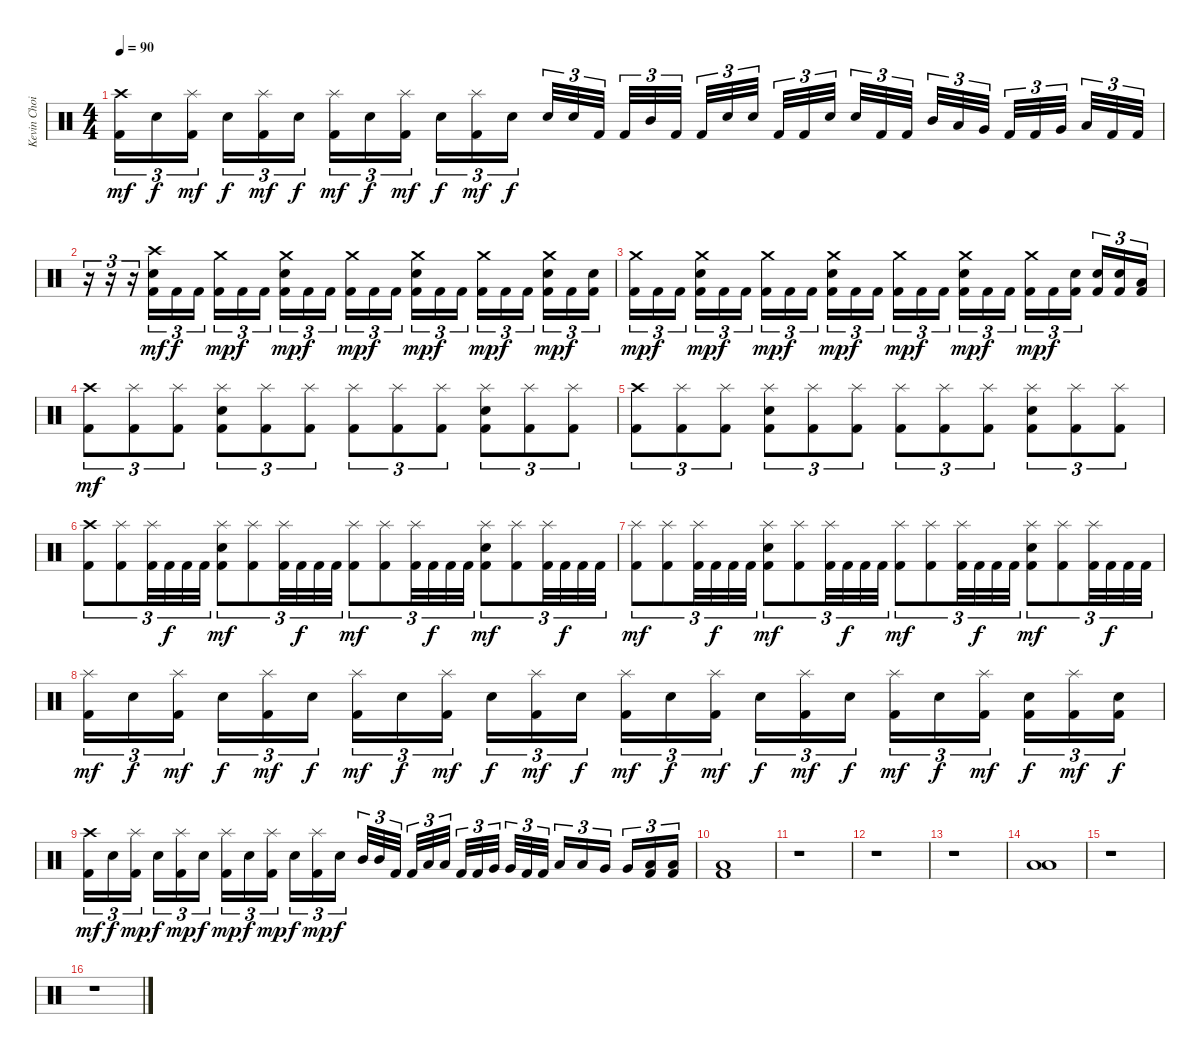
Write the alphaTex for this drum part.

\track ("Kevin Choiral" "Kevin Choi") {instrument percussion}
\staff
\articulation defaults
\ts (4 4)
\tempo 90
\clef neutral
\ks c
("Crash high (hit)" "Kick (hit) 2").16{tu (3 2) dy mf} "Electric Snare (hit)".16{tu (3 2) dy f} ("Splash (hit)" "Kick (hit) 2").16{tu (3 2) dy mf beam splitsecondary} "Electric Snare (hit)".16{tu (3 2) dy f} ("Splash (hit)" "Kick (hit) 2").16{tu (3 2) dy mf} "Electric Snare (hit)".16{tu (3 2) dy f} ("Splash (hit)" "Kick (hit) 2").16{tu (3 2) dy mf} "Electric Snare (hit)".16{tu (3 2) dy f} ("Splash (hit)" "Kick (hit) 2").16{tu (3 2) dy mf beam splitsecondary} "Electric Snare (hit)".16{tu (3 2) dy f} ("Splash (hit)" "Kick (hit) 2").16{tu (3 2) dy mf} "Electric Snare (hit)".16{tu (3 2) dy f} "Electric Snare (hit)".32{tu (3 2)} "Electric Snare (hit)".32{tu (3 2)} "Kick (hit) 2".32{tu (3 2) beam splitsecondary} "Kick (hit) 2".32{tu (3 2)} "Mid Tom (hit)".32{tu (3 2)} "Kick (hit) 2".32{tu (3 2) beam splitsecondary} "Kick (hit) 2".32{tu (3 2)} "Electric Snare (hit)".32{tu (3 2)} "Electric Snare (hit)".32{tu (3 2) beam splitsecondary} "Kick (hit) 2".32{tu (3 2)} "Kick (hit) 2".32{tu (3 2)} "Electric Snare (hit)".32{tu (3 2)} "Electric Snare (hit)".32{tu (3 2)} "Kick (hit) 2".32{tu (3 2)} "Kick (hit) 2".32{tu (3 2) beam splitsecondary} "Mid Tom (hit)".32{tu (3 2)} "Low Tom (hit)".32{tu (3 2)} "Very Low Tom (hit)".32{tu (3 2) beam splitsecondary} "Kick (hit) 2".32{tu (3 2)} "Kick (hit) 2".32{tu (3 2)} "Very Low Tom (hit)".32{tu (3 2) beam splitsecondary} "Low Floor Tom (hit)".32{tu (3 2)} "Kick (hit) 2".32{tu (3 2)} "Kick (hit) 2".32{tu (3 2)} |
r.16{tu (3 2)} r.16{tu (3 2)} r.16{tu (3 2)} ("Crash high (hit)" "Electric Snare (hit)" "Kick (hit) 2").16{tu (3 2) dy mf} "Kick (hit) 2".16{tu (3 2) dy f} "Kick (hit) 2".16{tu (3 2)} ("Crash medium (hit)" "Kick (hit) 2").16{tu (3 2) dy mp} "Kick (hit) 2".16{tu (3 2) dy f} "Kick (hit) 2".16{tu (3 2) beam splitsecondary} ("Crash medium (hit)" "Electric Snare (hit)" "Kick (hit) 2").16{tu (3 2) dy mp} "Kick (hit) 2".16{tu (3 2) dy f} "Kick (hit) 2".16{tu (3 2)} ("Crash medium (hit)" "Kick (hit) 2").16{tu (3 2) dy mp} "Kick (hit) 2".16{tu (3 2) dy f} "Kick (hit) 2".16{tu (3 2) beam splitsecondary} ("Crash medium (hit)" "Electric Snare (hit)" "Kick (hit) 2").16{tu (3 2) dy mp} "Kick (hit) 2".16{tu (3 2) dy f} "Kick (hit) 2".16{tu (3 2)} ("Crash medium (hit)" "Kick (hit) 2").16{tu (3 2) dy mp} "Kick (hit) 2".16{tu (3 2) dy f} "Kick (hit) 2".16{tu (3 2) beam splitsecondary} ("Crash medium (hit)" "Electric Snare (hit)" "Kick (hit) 2").16{tu (3 2) dy mp} "Kick (hit) 2".16{tu (3 2) dy f} ("Electric Snare (hit)" "Kick (hit) 2").16{tu (3 2)} |
("Crash medium (hit)" "Kick (hit) 2").16{tu (3 2) dy mp} "Kick (hit) 2".16{tu (3 2) dy f} "Kick (hit) 2".16{tu (3 2) beam splitsecondary} ("Crash medium (hit)" "Electric Snare (hit)" "Kick (hit) 2").16{tu (3 2) dy mp} "Kick (hit) 2".16{tu (3 2) dy f} "Kick (hit) 2".16{tu (3 2)} ("Crash medium (hit)" "Kick (hit) 2").16{tu (3 2) dy mp} "Kick (hit) 2".16{tu (3 2) dy f} "Kick (hit) 2".16{tu (3 2) beam splitsecondary} ("Crash medium (hit)" "Electric Snare (hit)" "Kick (hit) 2").16{tu (3 2) dy mp} "Kick (hit) 2".16{tu (3 2) dy f} "Kick (hit) 2".16{tu (3 2)} ("Crash medium (hit)" "Kick (hit) 2").16{tu (3 2) dy mp} "Kick (hit) 2".16{tu (3 2) dy f} "Kick (hit) 2".16{tu (3 2) beam splitsecondary} ("Crash medium (hit)" "Electric Snare (hit)" "Kick (hit) 2").16{tu (3 2) dy mp} "Kick (hit) 2".16{tu (3 2) dy f} "Kick (hit) 2".16{tu (3 2)} ("Crash medium (hit)" "Kick (hit) 2").16{tu (3 2) dy mp} "Kick (hit) 2".16{tu (3 2) dy f} ("Electric Snare (hit)" "Kick (hit) 2").16{tu (3 2) beam splitsecondary} ("Electric Snare (hit)" "Kick (hit) 2").16{tu (3 2)} ("Electric Snare (hit)" "Kick (hit) 2").16{tu (3 2)} ("Low Tom (hit)" "Kick (hit) 2").16{tu (3 2)} |
("Crash high (hit)" "Kick (hit) 2").8{tu (3 2) dy mf} ("Splash (hit)" "Kick (hit) 2").8{tu (3 2)} ("Splash (hit)" "Kick (hit) 2").8{tu (3 2)} ("Splash (hit)" "Electric Snare (hit)" "Kick (hit) 2").8{tu (3 2)} ("Splash (hit)" "Kick (hit) 2").8{tu (3 2)} ("Splash (hit)" "Kick (hit) 2").8{tu (3 2)} ("Splash (hit)" "Kick (hit) 2").8{tu (3 2)} ("Splash (hit)" "Kick (hit) 2").8{tu (3 2)} ("Splash (hit)" "Kick (hit) 2").8{tu (3 2)} ("Splash (hit)" "Electric Snare (hit)" "Kick (hit) 2").8{tu (3 2)} ("Splash (hit)" "Kick (hit) 2").8{tu (3 2)} ("Splash (hit)" "Kick (hit) 2").8{tu (3 2)} |
("Crash high (hit)" "Kick (hit) 2").8{tu (3 2)} ("Splash (hit)" "Kick (hit) 2").8{tu (3 2)} ("Splash (hit)" "Kick (hit) 2").8{tu (3 2)} ("Splash (hit)" "Electric Snare (hit)" "Kick (hit) 2").8{tu (3 2)} ("Splash (hit)" "Kick (hit) 2").8{tu (3 2)} ("Splash (hit)" "Kick (hit) 2").8{tu (3 2)} ("Splash (hit)" "Kick (hit) 2").8{tu (3 2)} ("Splash (hit)" "Kick (hit) 2").8{tu (3 2)} ("Splash (hit)" "Kick (hit) 2").8{tu (3 2)} ("Splash (hit)" "Electric Snare (hit)" "Kick (hit) 2").8{tu (3 2)} ("Splash (hit)" "Kick (hit) 2").8{tu (3 2)} ("Splash (hit)" "Kick (hit) 2").8{tu (3 2)} |
("Crash high (hit)" "Kick (hit) 2").8{tu (3 2)} ("Splash (hit)" "Kick (hit) 2").8{tu (3 2)} ("Splash (hit)" "Kick (hit) 2").32{tu (3 2)} "Kick (hit) 2".32{tu (3 2) dy f} "Kick (hit) 2".32{tu (3 2)} "Kick (hit) 2".32{tu (3 2)} ("Splash (hit)" "Electric Snare (hit)" "Kick (hit) 2").8{tu (3 2) dy mf} ("Splash (hit)" "Kick (hit) 2").8{tu (3 2)} ("Splash (hit)" "Kick (hit) 2").32{tu (3 2)} "Kick (hit) 2".32{tu (3 2) dy f} "Kick (hit) 2".32{tu (3 2)} "Kick (hit) 2".32{tu (3 2)} ("Splash (hit)" "Kick (hit) 2").8{tu (3 2) dy mf} ("Splash (hit)" "Kick (hit) 2").8{tu (3 2)} ("Splash (hit)" "Kick (hit) 2").32{tu (3 2)} "Kick (hit) 2".32{tu (3 2) dy f} "Kick (hit) 2".32{tu (3 2)} "Kick (hit) 2".32{tu (3 2)} ("Splash (hit)" "Electric Snare (hit)" "Kick (hit) 2").8{tu (3 2) dy mf} ("Splash (hit)" "Kick (hit) 2").8{tu (3 2)} ("Splash (hit)" "Kick (hit) 2").32{tu (3 2)} "Kick (hit) 2".32{tu (3 2) dy f} "Kick (hit) 2".32{tu (3 2)} "Kick (hit) 2".32{tu (3 2)} |
("Splash (hit)" "Kick (hit) 2").8{tu (3 2) dy mf} ("Splash (hit)" "Kick (hit) 2").8{tu (3 2)} ("Splash (hit)" "Kick (hit) 2").32{tu (3 2)} "Kick (hit) 2".32{tu (3 2) dy f} "Kick (hit) 2".32{tu (3 2)} "Kick (hit) 2".32{tu (3 2)} ("Splash (hit)" "Electric Snare (hit)" "Kick (hit) 2").8{tu (3 2) dy mf} ("Splash (hit)" "Kick (hit) 2").8{tu (3 2)} ("Splash (hit)" "Kick (hit) 2").32{tu (3 2)} "Kick (hit) 2".32{tu (3 2) dy f} "Kick (hit) 2".32{tu (3 2)} "Kick (hit) 2".32{tu (3 2)} ("Splash (hit)" "Kick (hit) 2").8{tu (3 2) dy mf} ("Splash (hit)" "Kick (hit) 2").8{tu (3 2)} ("Splash (hit)" "Kick (hit) 2").32{tu (3 2)} "Kick (hit) 2".32{tu (3 2) dy f} "Kick (hit) 2".32{tu (3 2)} "Kick (hit) 2".32{tu (3 2)} ("Splash (hit)" "Electric Snare (hit)" "Kick (hit) 2").8{tu (3 2) dy mf} ("Splash (hit)" "Kick (hit) 2").8{tu (3 2)} ("Splash (hit)" "Kick (hit) 2").32{tu (3 2)} "Kick (hit) 2".32{tu (3 2) dy f} "Kick (hit) 2".32{tu (3 2)} "Kick (hit) 2".32{tu (3 2)} |
("Splash (hit)" "Kick (hit) 2").16{tu (3 2) dy mf} "Electric Snare (hit)".16{tu (3 2) dy f} ("Splash (hit)" "Kick (hit) 2").16{tu (3 2) dy mf beam splitsecondary} "Electric Snare (hit)".16{tu (3 2) dy f} ("Splash (hit)" "Kick (hit) 2").16{tu (3 2) dy mf} "Electric Snare (hit)".16{tu (3 2) dy f} ("Splash (hit)" "Kick (hit) 2").16{tu (3 2) dy mf} "Electric Snare (hit)".16{tu (3 2) dy f} ("Splash (hit)" "Kick (hit) 2").16{tu (3 2) dy mf beam splitsecondary} "Electric Snare (hit)".16{tu (3 2) dy f} ("Splash (hit)" "Kick (hit) 2").16{tu (3 2) dy mf} "Electric Snare (hit)".16{tu (3 2) dy f} ("Splash (hit)" "Kick (hit) 2").16{tu (3 2) dy mf} "Electric Snare (hit)".16{tu (3 2) dy f} ("Splash (hit)" "Kick (hit) 2").16{tu (3 2) dy mf beam splitsecondary} "Electric Snare (hit)".16{tu (3 2) dy f} ("Splash (hit)" "Kick (hit) 2").16{tu (3 2) dy mf} "Electric Snare (hit)".16{tu (3 2) dy f} ("Splash (hit)" "Kick (hit) 2").16{tu (3 2) dy mf} "Electric Snare (hit)".16{tu (3 2) dy f} ("Splash (hit)" "Kick (hit) 2").16{tu (3 2) dy mf beam splitsecondary} ("Electric Snare (hit)" "Kick (hit) 2").16{tu (3 2) dy f} ("Splash (hit)" "Kick (hit) 2").16{tu (3 2) dy mf} ("Electric Snare (hit)" "Kick (hit) 2").16{tu (3 2) dy f} |
("Crash high (hit)" "Kick (hit) 2").16{tu (3 2) dy mf} "Electric Snare (hit)".16{tu (3 2) dy f} ("Splash (hit)" "Kick (hit) 2").16{tu (3 2) dy mp beam splitsecondary} "Electric Snare (hit)".16{tu (3 2) dy f} ("Splash (hit)" "Kick (hit) 2").16{tu (3 2) dy mp} "Electric Snare (hit)".16{tu (3 2) dy f} ("Splash (hit)" "Kick (hit) 2").16{tu (3 2) dy mp} "Electric Snare (hit)".16{tu (3 2) dy f} ("Splash (hit)" "Kick (hit) 2").16{tu (3 2) dy mp beam splitsecondary} "Electric Snare (hit)".16{tu (3 2) dy f} ("Splash (hit)" "Kick (hit) 2").16{tu (3 2) dy mp} "Electric Snare (hit)".16{tu (3 2) dy f} "Mid Tom (hit)".32{tu (3 2)} "Mid Tom (hit)".32{tu (3 2)} "Kick (hit) 2".32{tu (3 2) beam splitsecondary} "Kick (hit) 2".32{tu (3 2)} "Low Tom (hit)".32{tu (3 2)} "Low Tom (hit)".32{tu (3 2) beam splitsecondary} "Kick (hit) 2".32{tu (3 2)} "Kick (hit) 2".32{tu (3 2)} "Very Low Tom (hit)".32{tu (3 2) beam splitsecondary} "Very Low Tom (hit)".32{tu (3 2)} "Kick (hit) 2".32{tu (3 2)} "Kick (hit) 2".32{tu (3 2)} "Low Tom (hit)".16{tu (3 2)} "Low Tom (hit)".16{tu (3 2)} "Very Low Tom (hit)".16{tu (3 2) beam splitsecondary} "Very Low Tom (hit)".16{tu (3 2)} ("Low Floor Tom (hit)" "Kick (hit) 2").16{tu (3 2)} ("Low Floor Tom (hit)" "Kick (hit) 2").16{tu (3 2)} |
("Low Floor Tom (hit)" "Kick (hit) 2").1 |
r.1 |
r.1 |
r.1 |
("Low Floor Tom (hit)" "Low Floor Tom (hit)").1 |
r.1 |
r.1
